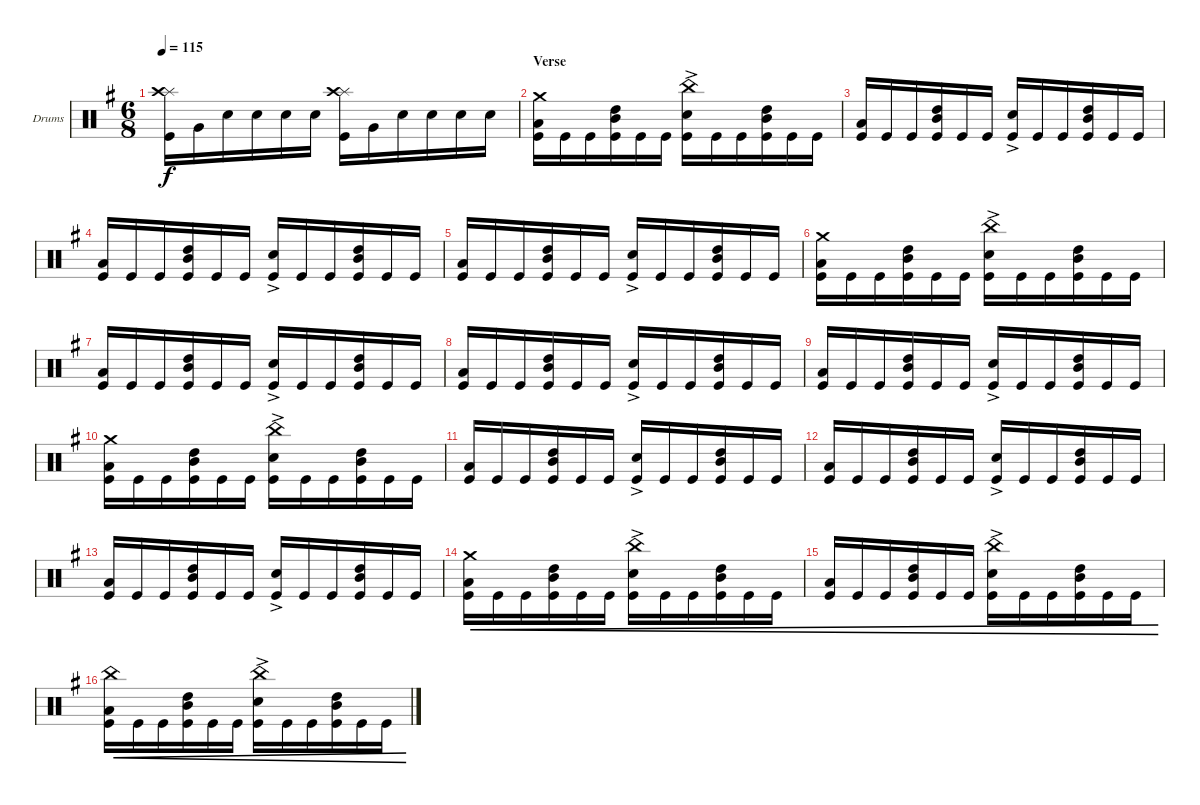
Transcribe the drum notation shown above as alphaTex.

\bracketExtendMode groupsimilarinstruments
\firstSystemTrackNameOrientation horizontal
\otherSystemsTrackNameOrientation horizontal
\track ("Drumkit" "Drums") {instrument percussion}
\staff {score}
\articulation defaults
\ts (6 8)
\tempo 115
\clef neutral
\ks eminor
("Kick (hit)" "Splash (hit)" "Crash high (hit)").16{dy f} "Very Low Tom (hit)".16 "Snare (hit) 2".16 "Snare (hit) 2".16 "Snare (hit) 2".16 "Snare (hit) 2".16 ("Kick (hit)" "Splash (hit)" "Crash high (hit)").16 "Very Low Tom (hit)".16 "Snare (hit) 2".16 "Snare (hit) 2".16 "Snare (hit) 2".16 "Snare (hit) 2".16 |
\section ("" "Verse")
("Kick (hit)" "Low Tom (hit)" "Crash medium (hit)").16 "Kick (hit)".16 "Kick (hit)".16 ("Kick (hit)" "Mid Tom (hit)" "High Tom (hit)").16 "Kick (hit)".16 "Kick (hit)".16 ("Kick (hit)" "Snare (hit) 2"{ac} "China (hit)").16 "Kick (hit)".16 "Kick (hit)".16 ("Kick (hit)" "Mid Tom (hit)" "High Tom (hit)").16 "Kick (hit)".16 "Kick (hit)".16 |
("Kick (hit)" "Low Tom (hit)").16 "Kick (hit)".16 "Kick (hit)".16 ("Kick (hit)" "Mid Tom (hit)" "High Tom (hit)").16 "Kick (hit)".16 "Kick (hit)".16 ("Kick (hit)" "Snare (hit) 2"{ac}).16 "Kick (hit)".16 "Kick (hit)".16 ("Kick (hit)" "Mid Tom (hit)" "High Tom (hit)").16 "Kick (hit)".16 "Kick (hit)".16 |
("Kick (hit)" "Low Tom (hit)").16 "Kick (hit)".16 "Kick (hit)".16 ("Kick (hit)" "Mid Tom (hit)" "High Tom (hit)").16 "Kick (hit)".16 "Kick (hit)".16 ("Kick (hit)" "Snare (hit) 2"{ac}).16 "Kick (hit)".16 "Kick (hit)".16 ("Kick (hit)" "Mid Tom (hit)" "High Tom (hit)").16 "Kick (hit)".16 "Kick (hit)".16 |
("Kick (hit)" "Low Tom (hit)").16 "Kick (hit)".16 "Kick (hit)".16 ("Kick (hit)" "Mid Tom (hit)" "High Tom (hit)").16 "Kick (hit)".16 "Kick (hit)".16 ("Kick (hit)" "Snare (hit) 2"{ac}).16 "Kick (hit)".16 "Kick (hit)".16 ("Kick (hit)" "Mid Tom (hit)" "High Tom (hit)").16 "Kick (hit)".16 "Kick (hit)".16 |
("Kick (hit)" "Low Tom (hit)" "Crash medium (hit)").16 "Kick (hit)".16 "Kick (hit)".16 ("Kick (hit)" "Mid Tom (hit)" "High Tom (hit)").16 "Kick (hit)".16 "Kick (hit)".16 ("Kick (hit)" "Snare (hit) 2"{ac} "China (hit)").16 "Kick (hit)".16 "Kick (hit)".16 ("Kick (hit)" "Mid Tom (hit)" "High Tom (hit)").16 "Kick (hit)".16 "Kick (hit)".16 |
("Kick (hit)" "Low Tom (hit)").16 "Kick (hit)".16 "Kick (hit)".16 ("Kick (hit)" "Mid Tom (hit)" "High Tom (hit)").16 "Kick (hit)".16 "Kick (hit)".16 ("Kick (hit)" "Snare (hit) 2"{ac}).16 "Kick (hit)".16 "Kick (hit)".16 ("Kick (hit)" "Mid Tom (hit)" "High Tom (hit)").16 "Kick (hit)".16 "Kick (hit)".16 |
("Kick (hit)" "Low Tom (hit)").16 "Kick (hit)".16 "Kick (hit)".16 ("Kick (hit)" "Mid Tom (hit)" "High Tom (hit)").16 "Kick (hit)".16 "Kick (hit)".16 ("Kick (hit)" "Snare (hit) 2"{ac}).16 "Kick (hit)".16 "Kick (hit)".16 ("Kick (hit)" "Mid Tom (hit)" "High Tom (hit)").16 "Kick (hit)".16 "Kick (hit)".16 |
("Kick (hit)" "Low Tom (hit)").16 "Kick (hit)".16 "Kick (hit)".16 ("Kick (hit)" "Mid Tom (hit)" "High Tom (hit)").16 "Kick (hit)".16 "Kick (hit)".16 ("Kick (hit)" "Snare (hit) 2"{ac}).16 "Kick (hit)".16 "Kick (hit)".16 ("Kick (hit)" "Mid Tom (hit)" "High Tom (hit)").16 "Kick (hit)".16 "Kick (hit)".16 |
("Kick (hit)" "Low Tom (hit)" "Crash medium (hit)").16 "Kick (hit)".16 "Kick (hit)".16 ("Kick (hit)" "Mid Tom (hit)" "High Tom (hit)").16 "Kick (hit)".16 "Kick (hit)".16 ("Kick (hit)" "Snare (hit) 2"{ac} "China (hit)").16 "Kick (hit)".16 "Kick (hit)".16 ("Kick (hit)" "Mid Tom (hit)" "High Tom (hit)").16 "Kick (hit)".16 "Kick (hit)".16 |
("Kick (hit)" "Low Tom (hit)").16 "Kick (hit)".16 "Kick (hit)".16 ("Kick (hit)" "Mid Tom (hit)" "High Tom (hit)").16 "Kick (hit)".16 "Kick (hit)".16 ("Kick (hit)" "Snare (hit) 2"{ac}).16 "Kick (hit)".16 "Kick (hit)".16 ("Kick (hit)" "Mid Tom (hit)" "High Tom (hit)").16 "Kick (hit)".16 "Kick (hit)".16 |
("Kick (hit)" "Low Tom (hit)").16 "Kick (hit)".16 "Kick (hit)".16 ("Kick (hit)" "Mid Tom (hit)" "High Tom (hit)").16 "Kick (hit)".16 "Kick (hit)".16 ("Kick (hit)" "Snare (hit) 2"{ac}).16 "Kick (hit)".16 "Kick (hit)".16 ("Kick (hit)" "Mid Tom (hit)" "High Tom (hit)").16 "Kick (hit)".16 "Kick (hit)".16 |
("Kick (hit)" "Low Tom (hit)").16 "Kick (hit)".16 "Kick (hit)".16 ("Kick (hit)" "Mid Tom (hit)" "High Tom (hit)").16 "Kick (hit)".16 "Kick (hit)".16 ("Kick (hit)" "Snare (hit) 2"{ac}).16 "Kick (hit)".16 "Kick (hit)".16 ("Kick (hit)" "Mid Tom (hit)" "High Tom (hit)").16 "Kick (hit)".16 "Kick (hit)".16 |
("Kick (hit)" "Low Tom (hit)" "Crash medium (hit)").16{cre} "Kick (hit)".16{cre} "Kick (hit)".16{cre} ("Kick (hit)" "Mid Tom (hit)" "High Tom (hit)").16{cre} "Kick (hit)".16{cre} "Kick (hit)".16{cre} ("Kick (hit)" "Snare (hit) 2"{ac} "China (hit)").16{cre} "Kick (hit)".16{cre} "Kick (hit)".16{cre} ("Kick (hit)" "Mid Tom (hit)" "High Tom (hit)").16{cre} "Kick (hit)".16{cre} "Kick (hit)".16{cre} |
("Kick (hit)" "Low Tom (hit)").16{cre} "Kick (hit)".16{cre} "Kick (hit)".16{cre} ("Kick (hit)" "Mid Tom (hit)" "High Tom (hit)").16{cre} "Kick (hit)".16{cre} "Kick (hit)".16{cre} ("Kick (hit)" "Snare (hit) 2"{ac} "China (hit)").16{cre} "Kick (hit)".16{cre} "Kick (hit)".16{cre} ("Kick (hit)" "Mid Tom (hit)" "High Tom (hit)").16{cre} "Kick (hit)".16{cre} "Kick (hit)".16{cre} |
("Kick (hit)" "Low Tom (hit)" "China (hit)").16{cre} "Kick (hit)".16{cre} "Kick (hit)".16{cre} ("Kick (hit)" "Mid Tom (hit)" "High Tom (hit)").16{cre} "Kick (hit)".16{cre} "Kick (hit)".16{cre} ("Kick (hit)" "Snare (hit) 2"{ac} "China (hit)").16{cre} "Kick (hit)".16{cre} "Kick (hit)".16{cre} ("Kick (hit)" "Mid Tom (hit)" "High Tom (hit)").16{cre} "Kick (hit)".16{cre} "Kick (hit)".16{cre}
